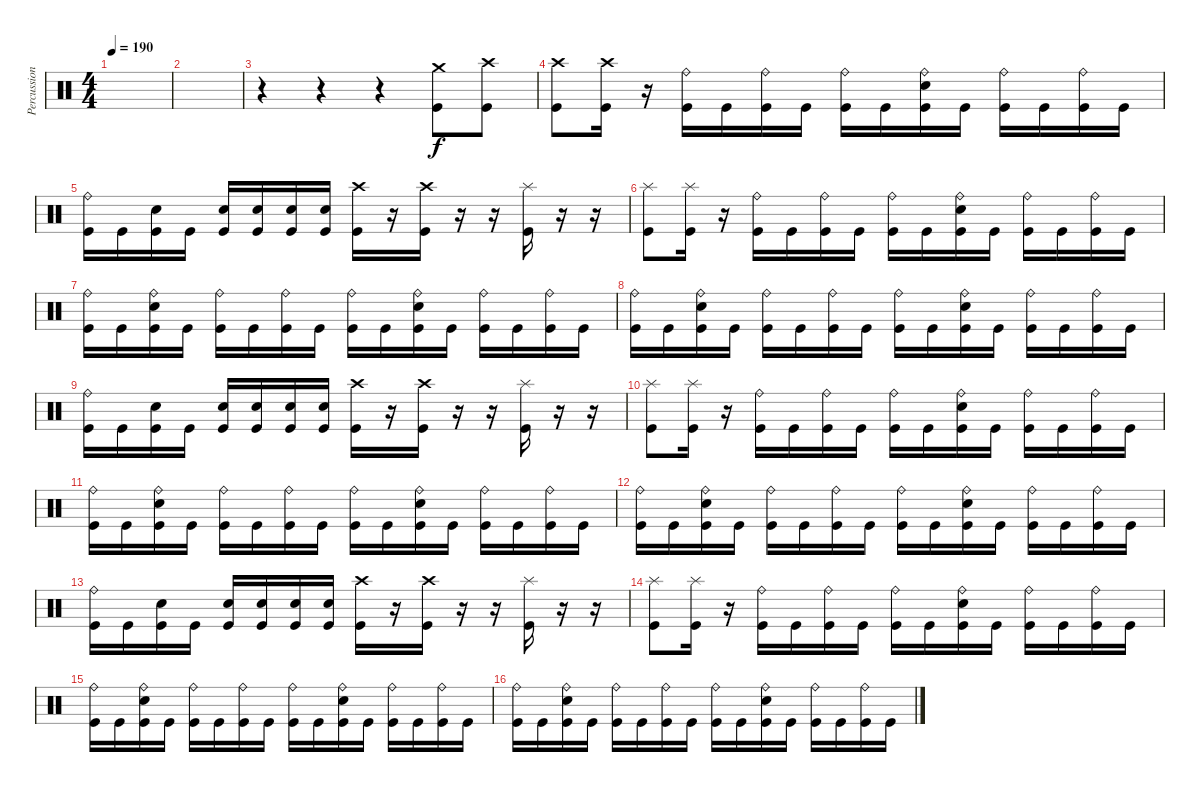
\track ("Percussion" "Percussion") {instrument percussion}
\staff {score}
\articulation defaults
\ts (4 4)
\tempo 190
\clef neutral
\ks c
|
|
r.4 r.4 r.4 ("Kick (hit)" "Crash medium (hit)").8 ("Kick (hit)" "Crash high (hit)").8 |
("Kick (hit)" "Crash high (hit)").8 ("Kick (hit)" "Crash high (hit)").16 r.16 ("Ride (bell)" "Kick (hit)").16 "Kick (hit)".16 ("Ride (bell)" "Kick (hit)").16 "Kick (hit)".16 ("Ride (bell)" "Kick (hit)").16 "Kick (hit)".16 ("Ride (bell)" "Electric Snare (hit)" "Kick (hit)").16 "Kick (hit)".16 ("Ride (bell)" "Kick (hit)").16 "Kick (hit)".16 ("Ride (bell)" "Kick (hit)").16 "Kick (hit)".16 |
("Ride (bell)" "Kick (hit)").16 "Kick (hit)".16 ("Electric Snare (hit)" "Kick (hit)").16 "Kick (hit)".16 ("Electric Snare (hit)" "Kick (hit)").16 ("Electric Snare (hit)" "Kick (hit)").16 ("Electric Snare (hit)" "Kick (hit)").16 ("Electric Snare (hit)" "Kick (hit)").16 ("Crash high (hit)" "Kick (hit)").16 r.16 ("Crash high (hit)" "Kick (hit)").16 r.16 r.16 ("Splash (hit)" "Kick (hit)").16 r.16 r.16 |
("Kick (hit)" "Splash (hit)").8 ("Kick (hit)" "Splash (hit)").16 r.16 ("Ride (bell)" "Kick (hit)").16 "Kick (hit)".16 ("Ride (bell)" "Kick (hit)").16 "Kick (hit)".16 ("Ride (bell)" "Kick (hit)").16 "Kick (hit)".16 ("Ride (bell)" "Electric Snare (hit)" "Kick (hit)").16 "Kick (hit)".16 ("Ride (bell)" "Kick (hit)").16 "Kick (hit)".16 ("Ride (bell)" "Kick (hit)").16 "Kick (hit)".16 |
("Ride (bell)" "Kick (hit)").16 "Kick (hit)".16 ("Ride (bell)" "Electric Snare (hit)" "Kick (hit)").16 "Kick (hit)".16 ("Ride (bell)" "Kick (hit)").16 "Kick (hit)".16 ("Ride (bell)" "Kick (hit)").16 "Kick (hit)".16 ("Ride (bell)" "Kick (hit)").16 "Kick (hit)".16 ("Ride (bell)" "Electric Snare (hit)" "Kick (hit)").16 "Kick (hit)".16 ("Ride (bell)" "Kick (hit)").16 "Kick (hit)".16 ("Ride (bell)" "Kick (hit)").16 "Kick (hit)".16 |
("Ride (bell)" "Kick (hit)").16 "Kick (hit)".16 ("Ride (bell)" "Electric Snare (hit)" "Kick (hit)").16 "Kick (hit)".16 ("Ride (bell)" "Kick (hit)").16 "Kick (hit)".16 ("Ride (bell)" "Kick (hit)").16 "Kick (hit)".16 ("Ride (bell)" "Kick (hit)").16 "Kick (hit)".16 ("Ride (bell)" "Electric Snare (hit)" "Kick (hit)").16 "Kick (hit)".16 ("Ride (bell)" "Kick (hit)").16 "Kick (hit)".16 ("Ride (bell)" "Kick (hit)").16 "Kick (hit)".16 |
("Ride (bell)" "Kick (hit)").16 "Kick (hit)".16 ("Electric Snare (hit)" "Kick (hit)").16 "Kick (hit)".16 ("Electric Snare (hit)" "Kick (hit)").16 ("Electric Snare (hit)" "Kick (hit)").16 ("Electric Snare (hit)" "Kick (hit)").16 ("Electric Snare (hit)" "Kick (hit)").16 ("Crash high (hit)" "Kick (hit)").16 r.16 ("Crash high (hit)" "Kick (hit)").16 r.16 r.16 ("Splash (hit)" "Kick (hit)").16 r.16 r.16 |
("Kick (hit)" "Splash (hit)").8 ("Kick (hit)" "Splash (hit)").16 r.16 ("Ride (bell)" "Kick (hit)").16 "Kick (hit)".16 ("Ride (bell)" "Kick (hit)").16 "Kick (hit)".16 ("Ride (bell)" "Kick (hit)").16 "Kick (hit)".16 ("Ride (bell)" "Electric Snare (hit)" "Kick (hit)").16 "Kick (hit)".16 ("Ride (bell)" "Kick (hit)").16 "Kick (hit)".16 ("Ride (bell)" "Kick (hit)").16 "Kick (hit)".16 |
("Ride (bell)" "Kick (hit)").16 "Kick (hit)".16 ("Ride (bell)" "Electric Snare (hit)" "Kick (hit)").16 "Kick (hit)".16 ("Ride (bell)" "Kick (hit)").16 "Kick (hit)".16 ("Ride (bell)" "Kick (hit)").16 "Kick (hit)".16 ("Ride (bell)" "Kick (hit)").16 "Kick (hit)".16 ("Ride (bell)" "Electric Snare (hit)" "Kick (hit)").16 "Kick (hit)".16 ("Ride (bell)" "Kick (hit)").16 "Kick (hit)".16 ("Ride (bell)" "Kick (hit)").16 "Kick (hit)".16 |
("Ride (bell)" "Kick (hit)").16 "Kick (hit)".16 ("Ride (bell)" "Electric Snare (hit)" "Kick (hit)").16 "Kick (hit)".16 ("Ride (bell)" "Kick (hit)").16 "Kick (hit)".16 ("Ride (bell)" "Kick (hit)").16 "Kick (hit)".16 ("Ride (bell)" "Kick (hit)").16 "Kick (hit)".16 ("Ride (bell)" "Electric Snare (hit)" "Kick (hit)").16 "Kick (hit)".16 ("Ride (bell)" "Kick (hit)").16 "Kick (hit)".16 ("Ride (bell)" "Kick (hit)").16 "Kick (hit)".16 |
("Ride (bell)" "Kick (hit)").16 "Kick (hit)".16 ("Electric Snare (hit)" "Kick (hit)").16 "Kick (hit)".16 ("Electric Snare (hit)" "Kick (hit)").16 ("Electric Snare (hit)" "Kick (hit)").16 ("Electric Snare (hit)" "Kick (hit)").16 ("Electric Snare (hit)" "Kick (hit)").16 ("Crash high (hit)" "Kick (hit)").16 r.16 ("Crash high (hit)" "Kick (hit)").16 r.16 r.16 ("Splash (hit)" "Kick (hit)").16 r.16 r.16 |
("Kick (hit)" "Splash (hit)").8 ("Kick (hit)" "Splash (hit)").16 r.16 ("Ride (bell)" "Kick (hit)").16 "Kick (hit)".16 ("Ride (bell)" "Kick (hit)").16 "Kick (hit)".16 ("Ride (bell)" "Kick (hit)").16 "Kick (hit)".16 ("Ride (bell)" "Electric Snare (hit)" "Kick (hit)").16 "Kick (hit)".16 ("Ride (bell)" "Kick (hit)").16 "Kick (hit)".16 ("Ride (bell)" "Kick (hit)").16 "Kick (hit)".16 |
("Ride (bell)" "Kick (hit)").16 "Kick (hit)".16 ("Ride (bell)" "Electric Snare (hit)" "Kick (hit)").16 "Kick (hit)".16 ("Ride (bell)" "Kick (hit)").16 "Kick (hit)".16 ("Ride (bell)" "Kick (hit)").16 "Kick (hit)".16 ("Ride (bell)" "Kick (hit)").16 "Kick (hit)".16 ("Ride (bell)" "Electric Snare (hit)" "Kick (hit)").16 "Kick (hit)".16 ("Ride (bell)" "Kick (hit)").16 "Kick (hit)".16 ("Ride (bell)" "Kick (hit)").16 "Kick (hit)".16 |
("Ride (bell)" "Kick (hit)").16 "Kick (hit)".16 ("Ride (bell)" "Electric Snare (hit)" "Kick (hit)").16 "Kick (hit)".16 ("Ride (bell)" "Kick (hit)").16 "Kick (hit)".16 ("Ride (bell)" "Kick (hit)").16 "Kick (hit)".16 ("Ride (bell)" "Kick (hit)").16 "Kick (hit)".16 ("Ride (bell)" "Electric Snare (hit)" "Kick (hit)").16 "Kick (hit)".16 ("Ride (bell)" "Kick (hit)").16 "Kick (hit)".16 ("Ride (bell)" "Kick (hit)").16 "Kick (hit)".16
